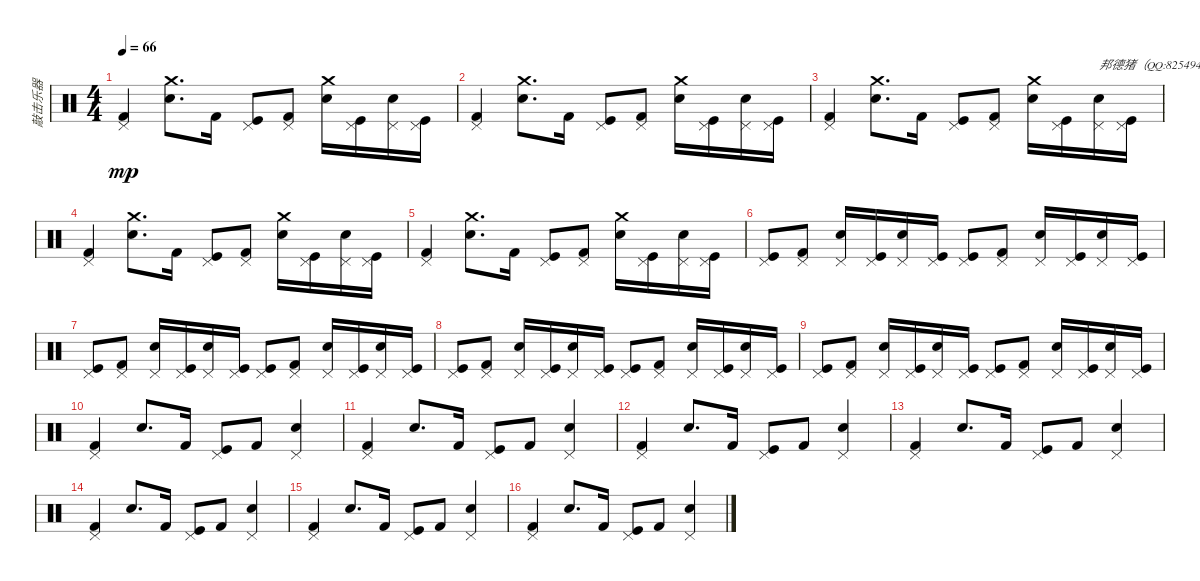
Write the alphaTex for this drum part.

\track ("敲击乐器" "敲击乐器") {instrument percussion}
\staff {score}
\articulation defaults
\ts (4 4)
\tempo 66
\clef neutral
\ks c
("Kick (hit) 2" "Pedal Hi-Hat (hit)").4{dy mp} ("Snare (hit) 2" "Crash medium (hit)").8{d} "Kick (hit) 2".16 ("Kick (hit)" "Pedal Hi-Hat (hit)").8 ("Kick (hit) 2" "Pedal Hi-Hat (hit)").8 ("Snare (hit) 2" "Crash medium (hit)").16 ("Kick (hit)" "Pedal Hi-Hat (hit)").16 ("Snare (hit) 2" "Pedal Hi-Hat (hit)").16 ("Kick (hit)" "Pedal Hi-Hat (hit)").16 |
("Kick (hit) 2" "Pedal Hi-Hat (hit)").4 ("Snare (hit) 2" "Crash medium (hit)").8{d} "Kick (hit) 2".16 ("Kick (hit)" "Pedal Hi-Hat (hit)").8 ("Kick (hit) 2" "Pedal Hi-Hat (hit)").8 ("Snare (hit) 2" "Crash medium (hit)").16 ("Kick (hit)" "Pedal Hi-Hat (hit)").16 ("Snare (hit) 2" "Pedal Hi-Hat (hit)").16 ("Kick (hit)" "Pedal Hi-Hat (hit)").16 |
("Kick (hit) 2" "Pedal Hi-Hat (hit)").4 ("Snare (hit) 2" "Crash medium (hit)").8{d} "Kick (hit) 2".16 ("Kick (hit)" "Pedal Hi-Hat (hit)").8 ("Kick (hit) 2" "Pedal Hi-Hat (hit)").8 ("Snare (hit) 2" "Crash medium (hit)").16 ("Kick (hit)" "Pedal Hi-Hat (hit)").16 ("Snare (hit) 2" "Pedal Hi-Hat (hit)").16{txt "邦德猪（QQ:82549448）"} ("Kick (hit)" "Pedal Hi-Hat (hit)").16 |
("Kick (hit) 2" "Pedal Hi-Hat (hit)").4 ("Snare (hit) 2" "Crash medium (hit)").8{d} "Kick (hit) 2".16 ("Kick (hit)" "Pedal Hi-Hat (hit)").8 ("Kick (hit) 2" "Pedal Hi-Hat (hit)").8 ("Snare (hit) 2" "Crash medium (hit)").16 ("Kick (hit)" "Pedal Hi-Hat (hit)").16 ("Snare (hit) 2" "Pedal Hi-Hat (hit)").16 ("Kick (hit)" "Pedal Hi-Hat (hit)").16 |
("Kick (hit) 2" "Pedal Hi-Hat (hit)").4 ("Snare (hit) 2" "Crash medium (hit)").8{d} "Kick (hit) 2".16 ("Kick (hit)" "Pedal Hi-Hat (hit)").8 ("Kick (hit) 2" "Pedal Hi-Hat (hit)").8 ("Snare (hit) 2" "Crash medium (hit)").16 ("Kick (hit)" "Pedal Hi-Hat (hit)").16 ("Snare (hit) 2" "Pedal Hi-Hat (hit)").16 ("Kick (hit)" "Pedal Hi-Hat (hit)").16 |
("Kick (hit)" "Pedal Hi-Hat (hit)").8 ("Kick (hit) 2" "Pedal Hi-Hat (hit)").8 ("Snare (hit) 2" "Pedal Hi-Hat (hit)").16 ("Kick (hit)" "Pedal Hi-Hat (hit)").16 ("Snare (hit) 2" "Pedal Hi-Hat (hit)").16 ("Kick (hit)" "Pedal Hi-Hat (hit)").16 ("Kick (hit)" "Pedal Hi-Hat (hit)").8 ("Kick (hit) 2" "Pedal Hi-Hat (hit)").8 ("Snare (hit) 2" "Pedal Hi-Hat (hit)").16 ("Kick (hit)" "Pedal Hi-Hat (hit)").16 ("Snare (hit) 2" "Pedal Hi-Hat (hit)").16 ("Kick (hit)" "Pedal Hi-Hat (hit)").16 |
("Kick (hit)" "Pedal Hi-Hat (hit)").8 ("Kick (hit) 2" "Pedal Hi-Hat (hit)").8 ("Snare (hit) 2" "Pedal Hi-Hat (hit)").16 ("Kick (hit)" "Pedal Hi-Hat (hit)").16 ("Snare (hit) 2" "Pedal Hi-Hat (hit)").16 ("Kick (hit)" "Pedal Hi-Hat (hit)").16 ("Kick (hit)" "Pedal Hi-Hat (hit)").8 ("Kick (hit) 2" "Pedal Hi-Hat (hit)").8 ("Snare (hit) 2" "Pedal Hi-Hat (hit)").16 ("Kick (hit)" "Pedal Hi-Hat (hit)").16 ("Snare (hit) 2" "Pedal Hi-Hat (hit)").16 ("Kick (hit)" "Pedal Hi-Hat (hit)").16 |
("Kick (hit)" "Pedal Hi-Hat (hit)").8 ("Kick (hit) 2" "Pedal Hi-Hat (hit)").8 ("Snare (hit) 2" "Pedal Hi-Hat (hit)").16 ("Kick (hit)" "Pedal Hi-Hat (hit)").16 ("Snare (hit) 2" "Pedal Hi-Hat (hit)").16 ("Kick (hit)" "Pedal Hi-Hat (hit)").16 ("Kick (hit)" "Pedal Hi-Hat (hit)").8 ("Kick (hit) 2" "Pedal Hi-Hat (hit)").8 ("Snare (hit) 2" "Pedal Hi-Hat (hit)").16 ("Kick (hit)" "Pedal Hi-Hat (hit)").16 ("Snare (hit) 2" "Pedal Hi-Hat (hit)").16 ("Kick (hit)" "Pedal Hi-Hat (hit)").16 |
("Kick (hit)" "Pedal Hi-Hat (hit)").8 ("Kick (hit) 2" "Pedal Hi-Hat (hit)").8 ("Snare (hit) 2" "Pedal Hi-Hat (hit)").16 ("Kick (hit)" "Pedal Hi-Hat (hit)").16 ("Snare (hit) 2" "Pedal Hi-Hat (hit)").16 ("Kick (hit)" "Pedal Hi-Hat (hit)").16 ("Kick (hit)" "Pedal Hi-Hat (hit)").8 ("Kick (hit) 2" "Pedal Hi-Hat (hit)").8 ("Snare (hit) 2" "Pedal Hi-Hat (hit)").16 ("Kick (hit)" "Pedal Hi-Hat (hit)").16 ("Snare (hit) 2" "Pedal Hi-Hat (hit)").16 ("Kick (hit)" "Pedal Hi-Hat (hit)").16 |
("Kick (hit) 2" "Pedal Hi-Hat (hit)").4 "Snare (hit) 2".8{d} "Kick (hit) 2".16 ("Kick (hit)" "Pedal Hi-Hat (hit)").8 "Kick (hit) 2".8 ("Snare (hit) 2" "Pedal Hi-Hat (hit)").4 |
("Kick (hit) 2" "Pedal Hi-Hat (hit)").4 "Snare (hit) 2".8{d} "Kick (hit) 2".16 ("Kick (hit)" "Pedal Hi-Hat (hit)").8 "Kick (hit) 2".8 ("Snare (hit) 2" "Pedal Hi-Hat (hit)").4 |
("Kick (hit) 2" "Pedal Hi-Hat (hit)").4 "Snare (hit) 2".8{d} "Kick (hit) 2".16 ("Kick (hit)" "Pedal Hi-Hat (hit)").8 "Kick (hit) 2".8 ("Snare (hit) 2" "Pedal Hi-Hat (hit)").4 |
("Kick (hit) 2" "Pedal Hi-Hat (hit)").4 "Snare (hit) 2".8{d} "Kick (hit) 2".16 ("Kick (hit)" "Pedal Hi-Hat (hit)").8 "Kick (hit) 2".8 ("Snare (hit) 2" "Pedal Hi-Hat (hit)").4 |
("Kick (hit) 2" "Pedal Hi-Hat (hit)").4 "Snare (hit) 2".8{d} "Kick (hit) 2".16 ("Kick (hit)" "Pedal Hi-Hat (hit)").8 "Kick (hit) 2".8 ("Snare (hit) 2" "Pedal Hi-Hat (hit)").4 |
("Kick (hit) 2" "Pedal Hi-Hat (hit)").4 "Snare (hit) 2".8{d} "Kick (hit) 2".16 ("Kick (hit)" "Pedal Hi-Hat (hit)").8 "Kick (hit) 2".8 ("Snare (hit) 2" "Pedal Hi-Hat (hit)").4 |
("Kick (hit) 2" "Pedal Hi-Hat (hit)").4 "Snare (hit) 2".8{d} "Kick (hit) 2".16 ("Kick (hit)" "Pedal Hi-Hat (hit)").8 "Kick (hit) 2".8 ("Snare (hit) 2" "Pedal Hi-Hat (hit)").4
